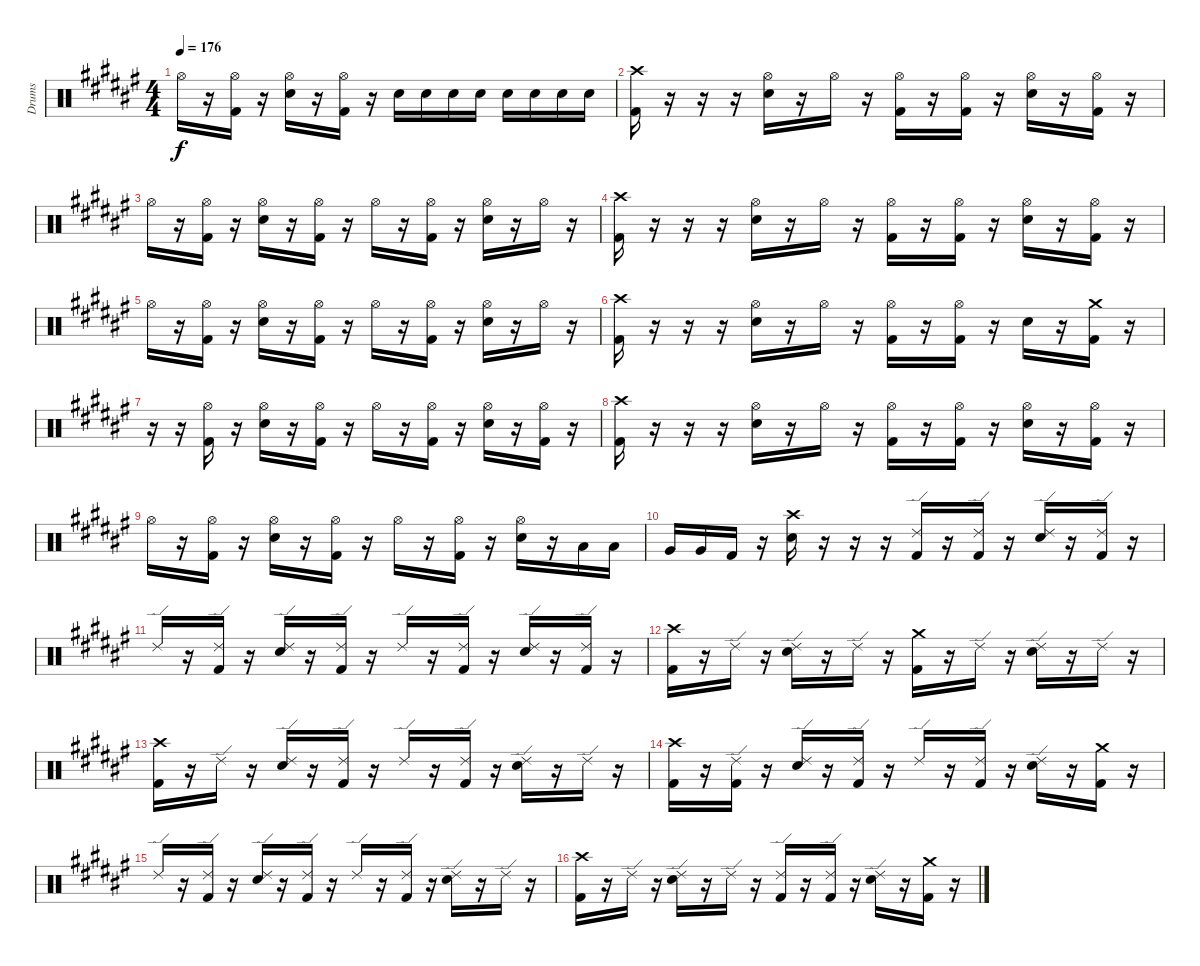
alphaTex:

\track ("Drums" "Drums") {instrument percussion}
\staff {score}
\articulation defaults
\ts (4 4)
\tempo 176
\clef neutral
\ks f# "Hi-Hat (open)".16{dy f}
r.16 ("Hi-Hat (open)" "Kick (hit) 2").16 r.16 ("Hi-Hat (open)" "Electric Snare (hit)").16 r.16 ("Hi-Hat (open)" "Kick (hit) 2").16 r.16 "Electric Snare (hit)".16 "Electric Snare (hit)".16 "Electric Snare (hit)".16 "Electric Snare (hit)".16 "Electric Snare (hit)".16 "Electric Snare (hit)".16 "Electric Snare (hit)".16 "Electric Snare (hit)".16 |
("Crash high (hit)" "Kick (hit) 2").16 r.16 r.16 r.16 ("Hi-Hat (open)" "Electric Snare (hit)").16 r.16 "Hi-Hat (open)".16 r.16 ("Hi-Hat (open)" "Kick (hit) 2").16 r.16 ("Hi-Hat (open)" "Kick (hit) 2").16 r.16 ("Hi-Hat (open)" "Electric Snare (hit)").16 r.16 ("Hi-Hat (open)" "Kick (hit) 2").16 r.16 |
"Hi-Hat (open)".16 r.16 ("Hi-Hat (open)" "Kick (hit) 2").16 r.16 ("Hi-Hat (open)" "Electric Snare (hit)").16 r.16 ("Hi-Hat (open)" "Kick (hit) 2").16 r.16 "Hi-Hat (open)".16 r.16 ("Hi-Hat (open)" "Kick (hit) 2").16 r.16 ("Hi-Hat (open)" "Electric Snare (hit)").16 r.16 "Hi-Hat (open)".16 r.16 |
("Crash high (hit)" "Kick (hit) 2").16 r.16 r.16 r.16 ("Hi-Hat (open)" "Electric Snare (hit)").16 r.16 "Hi-Hat (open)".16 r.16 ("Hi-Hat (open)" "Kick (hit) 2").16 r.16 ("Hi-Hat (open)" "Kick (hit) 2").16 r.16 ("Hi-Hat (open)" "Electric Snare (hit)").16 r.16 ("Hi-Hat (open)" "Kick (hit) 2").16 r.16 |
"Hi-Hat (open)".16 r.16 ("Hi-Hat (open)" "Kick (hit) 2").16 r.16 ("Hi-Hat (open)" "Electric Snare (hit)").16 r.16 ("Hi-Hat (open)" "Kick (hit) 2").16 r.16 "Hi-Hat (open)".16 r.16 ("Hi-Hat (open)" "Kick (hit) 2").16 r.16 ("Hi-Hat (open)" "Electric Snare (hit)").16 r.16 "Hi-Hat (open)".16 r.16 |
("Crash high (hit)" "Kick (hit) 2").16 r.16 r.16 r.16 ("Hi-Hat (open)" "Electric Snare (hit)").16 r.16 "Hi-Hat (open)".16 r.16 ("Hi-Hat (open)" "Kick (hit) 2").16 r.16 ("Hi-Hat (open)" "Kick (hit) 2").16 r.16 "Electric Snare (hit)".16 r.16 ("Crash medium (hit)" "Kick (hit) 2").16 r.16 |
r.16 r.16 ("Hi-Hat (open)" "Kick (hit) 2").16 r.16 ("Hi-Hat (open)" "Electric Snare (hit)").16 r.16 ("Hi-Hat (open)" "Kick (hit) 2").16 r.16 "Hi-Hat (open)".16 r.16 ("Hi-Hat (open)" "Kick (hit) 2").16 r.16 ("Hi-Hat (open)" "Electric Snare (hit)").16 r.16 ("Hi-Hat (open)" "Kick (hit) 2").16 r.16 |
("Crash high (hit)" "Kick (hit) 2").16 r.16 r.16 r.16 ("Hi-Hat (open)" "Electric Snare (hit)").16 r.16 "Hi-Hat (open)".16 r.16 ("Hi-Hat (open)" "Kick (hit) 2").16 r.16 ("Hi-Hat (open)" "Kick (hit) 2").16 r.16 ("Hi-Hat (open)" "Electric Snare (hit)").16 r.16 ("Hi-Hat (open)" "Kick (hit) 2").16 r.16 |
"Hi-Hat (open)".16 r.16 ("Hi-Hat (open)" "Kick (hit) 2").16 r.16 ("Hi-Hat (open)" "Electric Snare (hit)").16 r.16 ("Hi-Hat (open)" "Kick (hit) 2").16 r.16 "Hi-Hat (open)".16 r.16 ("Hi-Hat (open)" "Kick (hit) 2").16 r.16 ("Hi-Hat (open)" "Electric Snare (hit)").16 r.16 "Low Tom (hit)".16 "Low Tom (hit)".16 |
"Very Low Tom (hit)".16 "Very Low Tom (hit)".16 "Kick (hit) 2".16 r.16 ("Crash high (hit)" "Electric Snare (hit)").16 r.16 r.16 r.16 ("Ride (edge) 2" "Kick (hit) 2").16 r.16 ("Ride (edge) 2" "Kick (hit) 2").16 r.16 ("Ride (edge) 2" "Electric Snare (hit)").16 r.16 ("Ride (edge) 2" "Kick (hit) 2").16 r.16 |
"Ride (edge) 2".16 r.16 ("Ride (edge) 2" "Kick (hit) 2").16 r.16 ("Ride (edge) 2" "Electric Snare (hit)").16 r.16 ("Ride (edge) 2" "Kick (hit) 2").16 r.16 "Ride (edge) 2".16 r.16 ("Ride (edge) 2" "Kick (hit) 2").16 r.16 ("Ride (edge) 2" "Electric Snare (hit)").16 r.16 ("Ride (edge) 2" "Kick (hit) 2").16 r.16 |
("Crash high (hit)" "Kick (hit) 2").16 r.16 "Ride (edge) 2".16 r.16 ("Ride (edge) 2" "Electric Snare (hit)").16 r.16 "Ride (edge) 2".16 r.16 ("Crash medium (hit)" "Kick (hit) 2").16 r.16 "Ride (edge) 2".16 r.16 ("Ride (edge) 2" "Electric Snare (hit)").16 r.16 "Ride (edge) 2".16 r.16 |
("Crash high (hit)" "Kick (hit) 2").16 r.16 "Ride (edge) 2".16 r.16 ("Ride (edge) 2" "Electric Snare (hit)").16 r.16 ("Ride (edge) 2" "Kick (hit) 2").16 r.16 "Ride (edge) 2".16 r.16 ("Ride (edge) 2" "Kick (hit) 2").16 r.16 ("Ride (edge) 2" "Electric Snare (hit)").16 r.16 "Ride (edge) 2".16 r.16 |
("Crash high (hit)" "Kick (hit) 2").16 r.16 ("Ride (edge) 2" "Kick (hit) 2").16 r.16 ("Ride (edge) 2" "Electric Snare (hit)").16 r.16 ("Ride (edge) 2" "Kick (hit) 2").16 r.16 "Ride (edge) 2".16 r.16 ("Ride (edge) 2" "Kick (hit) 2").16 r.16 ("Ride (edge) 2" "Electric Snare (hit)").16 r.16 ("Crash medium (hit)" "Kick (hit) 2").16 r.16 |
"Ride (edge) 2".16 r.16 ("Ride (edge) 2" "Kick (hit) 2").16 r.16 ("Ride (edge) 2" "Electric Snare (hit)").16 r.16 ("Ride (edge) 2" "Kick (hit) 2").16 r.16 "Ride (edge) 2".16 r.16 ("Ride (edge) 2" "Kick (hit) 2").16 r.16 ("Ride (edge) 2" "Electric Snare (hit)").16 r.16 "Ride (edge) 2".16 r.16 |
("Crash high (hit)" "Kick (hit) 2").16 r.16 "Ride (edge) 2".16 r.16 ("Ride (edge) 2" "Electric Snare (hit)").16 r.16 "Ride (edge) 2".16 r.16 ("Ride (edge) 2" "Kick (hit) 2").16 r.16 ("Ride (edge) 2" "Kick (hit) 2").16 r.16 ("Ride (edge) 2" "Electric Snare (hit)").16 r.16 ("Crash medium (hit)" "Kick (hit) 2").16 r.16
